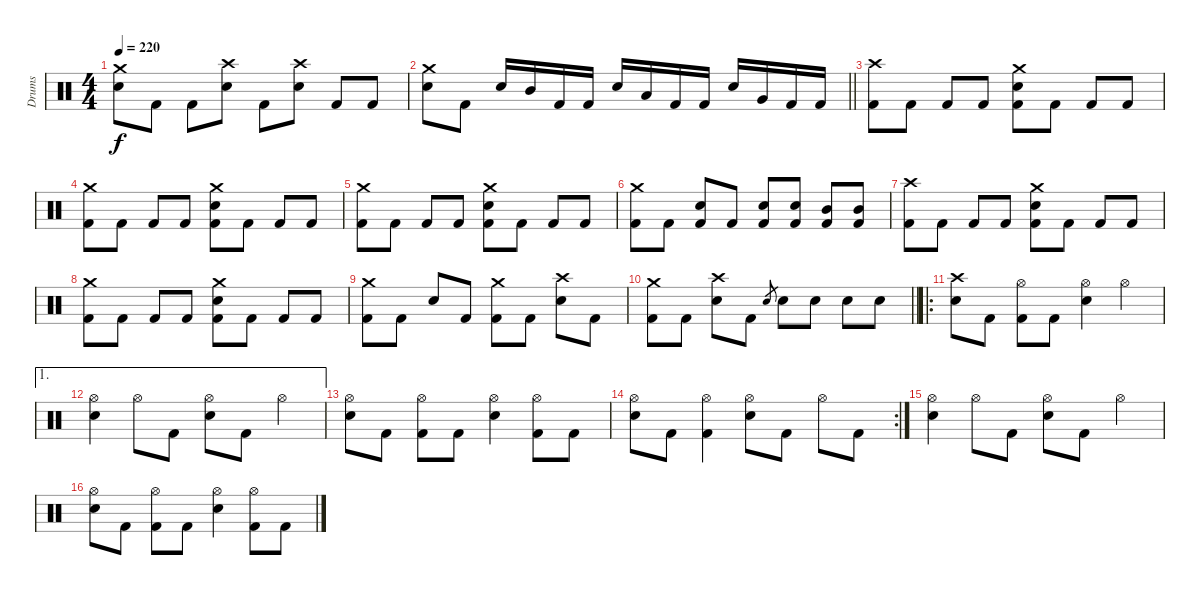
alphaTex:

\track ("Drums" "Drums") {instrument percussion}
\staff {score}
\articulation defaults
\ts (4 4)
\tempo 220
\clef neutral
\ks c
("Crash medium (hit)" "Snare (hit) 2").8{dy f} "Kick (hit) 2".8 "Kick (hit) 2".8 ("Crash high (hit)" "Snare (hit) 2").8 "Kick (hit) 2".8 ("Crash high (hit)" "Snare (hit) 2").8 "Kick (hit) 2".8 "Kick (hit) 2".8 |
\barLineRight lightlight
("Crash medium (hit)" "Snare (hit) 2").8 "Kick (hit) 2".8 "Snare (hit) 2".16 "Mid Tom (hit)".16 "Kick (hit) 2".16 "Kick (hit) 2".16 "Snare (hit) 2".16 "Low Tom (hit)".16 "Kick (hit) 2".16 "Kick (hit) 2".16 "Snare (hit) 2".16 "Very Low Tom (hit)".16 "Kick (hit) 2".16 "Kick (hit) 2".16 |
("Crash high (hit)" "Kick (hit) 2").8 "Kick (hit) 2".8 "Kick (hit) 2".8 "Kick (hit) 2".8 ("Crash medium (hit)" "Snare (hit) 2" "Kick (hit) 2").8 "Kick (hit) 2".8 "Kick (hit) 2".8 "Kick (hit) 2".8 |
("Crash medium (hit)" "Kick (hit) 2").8 "Kick (hit) 2".8 "Kick (hit) 2".8 "Kick (hit) 2".8 ("Crash medium (hit)" "Snare (hit) 2" "Kick (hit) 2").8 "Kick (hit) 2".8 "Kick (hit) 2".8 "Kick (hit) 2".8 |
("Crash medium (hit)" "Kick (hit) 2").8 "Kick (hit) 2".8 "Kick (hit) 2".8 "Kick (hit) 2".8 ("Crash medium (hit)" "Snare (hit) 2" "Kick (hit) 2").8 "Kick (hit) 2".8 "Kick (hit) 2".8 "Kick (hit) 2".8 |
("Crash medium (hit)" "Kick (hit) 2").8 "Kick (hit) 2".8 ("Snare (hit) 2" "Kick (hit) 2").8 "Kick (hit) 2".8 ("Snare (hit) 2" "Kick (hit) 2").8 ("Snare (hit) 2" "Kick (hit) 2").8 ("Mid Tom (hit)" "Kick (hit) 2").8 ("Mid Tom (hit)" "Kick (hit) 2").8 |
("Crash high (hit)" "Kick (hit) 2").8 "Kick (hit) 2".8 "Kick (hit) 2".8 "Kick (hit) 2".8 ("Crash medium (hit)" "Snare (hit) 2" "Kick (hit) 2").8 "Kick (hit) 2".8 "Kick (hit) 2".8 "Kick (hit) 2".8 |
("Crash medium (hit)" "Kick (hit) 2").8 "Kick (hit) 2".8 "Kick (hit) 2".8 "Kick (hit) 2".8 ("Crash medium (hit)" "Snare (hit) 2" "Kick (hit) 2").8 "Kick (hit) 2".8 "Kick (hit) 2".8 "Kick (hit) 2".8 |
("Crash medium (hit)" "Kick (hit) 2").8 "Kick (hit) 2".8 "Snare (hit) 2".8 "Kick (hit) 2".8 ("Crash medium (hit)" "Kick (hit) 2").8 "Kick (hit) 2".8 ("Crash high (hit)" "Snare (hit) 2").8 "Kick (hit) 2".8 |
\barLineRight lightlight
("Crash medium (hit)" "Kick (hit) 2").8 "Kick (hit) 2".8 ("Crash high (hit)" "Snare (hit) 2").8 "Kick (hit) 2".8 "Snare (hit) 2".8{gr} "Snare (hit) 2".8 "Snare (hit) 2".8 "Snare (hit) 2".8 "Snare (hit) 2".8 |
\ro
("Crash high (hit)" "Snare (hit) 2").8 "Kick (hit) 2".8 ("Hi-Hat (open)" "Kick (hit) 2").8 "Kick (hit) 2".8 ("Hi-Hat (open)" "Snare (hit) 2").4 "Hi-Hat (open)".4 |
\ae 1
("Hi-Hat (open)" "Snare (hit) 2").4 "Hi-Hat (open)".8 "Kick (hit) 2".8 ("Hi-Hat (open)" "Snare (hit) 2").8 "Kick (hit) 2".8 "Hi-Hat (open)".4 |
("Hi-Hat (open)" "Snare (hit) 2").8 "Kick (hit) 2".8 ("Hi-Hat (open)" "Kick (hit) 2").8 "Kick (hit) 2".8 ("Hi-Hat (open)" "Snare (hit) 2").4 ("Hi-Hat (open)" "Kick (hit) 2").8 "Kick (hit) 2".8 |
\rc 2
("Hi-Hat (open)" "Snare (hit) 2").8 "Kick (hit) 2".8 ("Hi-Hat (open)" "Kick (hit) 2").4 ("Hi-Hat (open)" "Snare (hit) 2").8 "Kick (hit) 2".8 "Hi-Hat (open)".8 "Kick (hit) 2".8 |
("Hi-Hat (open)" "Snare (hit) 2").4 "Hi-Hat (open)".8 "Kick (hit) 2".8 ("Hi-Hat (open)" "Snare (hit) 2").8 "Kick (hit) 2".8 "Hi-Hat (open)".4 |
("Hi-Hat (open)" "Snare (hit) 2").8 "Kick (hit) 2".8 ("Hi-Hat (open)" "Kick (hit) 2").8 "Kick (hit) 2".8 ("Hi-Hat (open)" "Snare (hit) 2").4 ("Hi-Hat (open)" "Kick (hit) 2").8 "Kick (hit) 2".8
